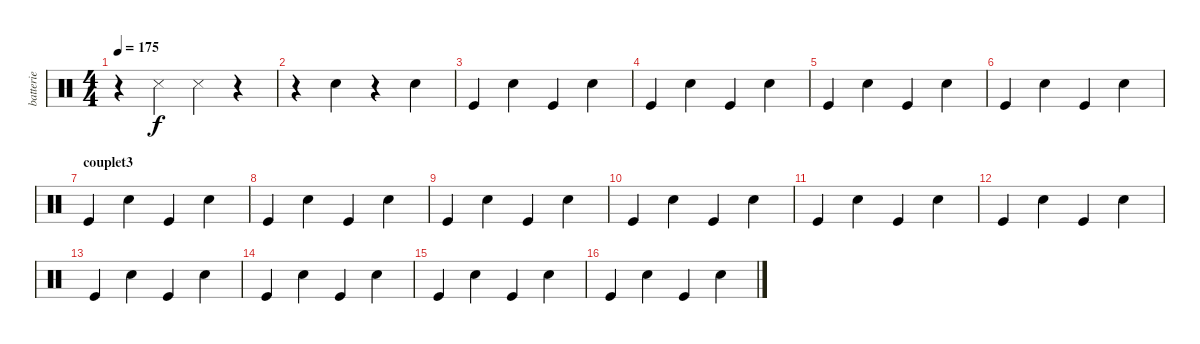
\track ("batterie" "batterie") {instrument percussion}
\staff {score}
\articulation defaults
\ts (4 4)
\tempo 175
\clef neutral
\ks c
r.4{dy f} "Snare (side stick) 3".4 "Snare (side stick) 3".4 r.4 |
r.4 "Snare (hit) 2".4 r.4 "Snare (hit) 2".4 |
"Kick (hit)".4 "Snare (hit) 2".4 "Kick (hit)".4 "Snare (hit) 2".4 |
"Kick (hit)".4 "Snare (hit) 2".4 "Kick (hit)".4 "Snare (hit) 2".4 |
"Kick (hit)".4 "Snare (hit) 2".4 "Kick (hit)".4 "Snare (hit) 2".4 |
"Kick (hit)".4 "Snare (hit) 2".4 "Kick (hit)".4 "Snare (hit) 2".4 |
\section ("" "couplet3")
"Kick (hit)".4 "Snare (hit) 2".4 "Kick (hit)".4 "Snare (hit) 2".4 |
"Kick (hit)".4 "Snare (hit) 2".4 "Kick (hit)".4 "Snare (hit) 2".4 |
"Kick (hit)".4 "Snare (hit) 2".4 "Kick (hit)".4 "Snare (hit) 2".4 |
"Kick (hit)".4 "Snare (hit) 2".4 "Kick (hit)".4 "Snare (hit) 2".4 |
"Kick (hit)".4 "Snare (hit) 2".4 "Kick (hit)".4 "Snare (hit) 2".4 |
"Kick (hit)".4 "Snare (hit) 2".4 "Kick (hit)".4 "Snare (hit) 2".4 |
"Kick (hit)".4 "Snare (hit) 2".4 "Kick (hit)".4 "Snare (hit) 2".4 |
"Kick (hit)".4 "Snare (hit) 2".4 "Kick (hit)".4 "Snare (hit) 2".4 |
"Kick (hit)".4 "Snare (hit) 2".4 "Kick (hit)".4 "Snare (hit) 2".4 |
"Kick (hit)".4 "Snare (hit) 2".4 "Kick (hit)".4 "Snare (hit) 2".4
